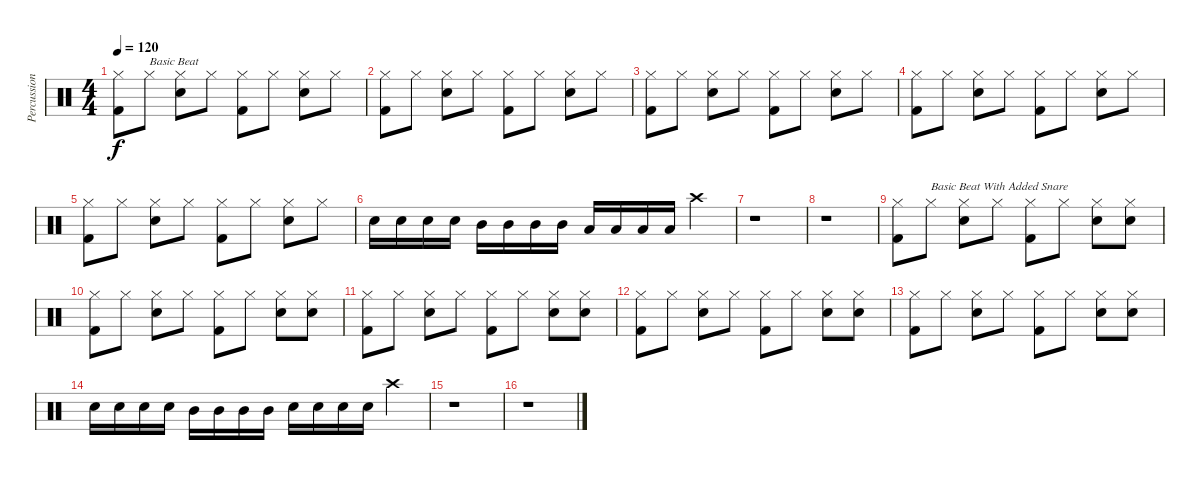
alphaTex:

\track ("Percussion" "Percussion") {instrument percussion}
\staff {score}
\articulation defaults
\ts (4 4)
\tempo 120
\clef neutral
\ks c
("Hi-Hat (closed)" "Kick (hit) 2").8{dy f} "Hi-Hat (closed)".8{txt "Basic Beat"} ("Snare (hit) 2" "Hi-Hat (closed)").8 "Hi-Hat (closed)".8 ("Hi-Hat (closed)" "Kick (hit) 2").8 "Hi-Hat (closed)".8 ("Snare (hit) 2" "Hi-Hat (closed)").8 "Hi-Hat (closed)".8 |
("Hi-Hat (closed)" "Kick (hit) 2").8 "Hi-Hat (closed)".8 ("Snare (hit) 2" "Hi-Hat (closed)").8 "Hi-Hat (closed)".8 ("Hi-Hat (closed)" "Kick (hit) 2").8 "Hi-Hat (closed)".8 ("Snare (hit) 2" "Hi-Hat (closed)").8 "Hi-Hat (closed)".8 |
("Hi-Hat (closed)" "Kick (hit) 2").8 "Hi-Hat (closed)".8 ("Snare (hit) 2" "Hi-Hat (closed)").8 "Hi-Hat (closed)".8 ("Hi-Hat (closed)" "Kick (hit) 2").8 "Hi-Hat (closed)".8 ("Snare (hit) 2" "Hi-Hat (closed)").8 "Hi-Hat (closed)".8 |
("Hi-Hat (closed)" "Kick (hit) 2").8 "Hi-Hat (closed)".8 ("Snare (hit) 2" "Hi-Hat (closed)").8 "Hi-Hat (closed)".8 ("Hi-Hat (closed)" "Kick (hit) 2").8 "Hi-Hat (closed)".8 ("Snare (hit) 2" "Hi-Hat (closed)").8 "Hi-Hat (closed)".8 |
("Hi-Hat (closed)" "Kick (hit) 2").8 "Hi-Hat (closed)".8 ("Snare (hit) 2" "Hi-Hat (closed)").8 "Hi-Hat (closed)".8 ("Hi-Hat (closed)" "Kick (hit) 2").8 "Hi-Hat (closed)".8 ("Snare (hit) 2" "Hi-Hat (closed)").8 "Hi-Hat (closed)".8 |
"Snare (hit) 2".16 "Snare (hit) 2".16 "Snare (hit) 2".16 "Snare (hit) 2".16 "Mid Tom (hit)".16 "Mid Tom (hit)".16 "Mid Tom (hit)".16 "Mid Tom (hit)".16 "Low Tom (hit)".16 "Low Tom (hit)".16 "Low Tom (hit)".16 "Low Tom (hit)".16 "Crash high (hit)".4 |
r.1 |
r.1 |
("Hi-Hat (closed)" "Kick (hit) 2").8 "Hi-Hat (closed)".8{txt "Basic Beat With Added Snare"} ("Snare (hit) 2" "Hi-Hat (closed)").8 "Hi-Hat (closed)".8 ("Hi-Hat (closed)" "Kick (hit) 2").8 "Hi-Hat (closed)".8 ("Snare (hit) 2" "Hi-Hat (closed)").8 ("Snare (hit) 2" "Hi-Hat (closed)").8 |
("Hi-Hat (closed)" "Kick (hit) 2").8 "Hi-Hat (closed)".8 ("Snare (hit) 2" "Hi-Hat (closed)").8 "Hi-Hat (closed)".8 ("Hi-Hat (closed)" "Kick (hit) 2").8 "Hi-Hat (closed)".8 ("Snare (hit) 2" "Hi-Hat (closed)").8 ("Snare (hit) 2" "Hi-Hat (closed)").8 |
("Hi-Hat (closed)" "Kick (hit) 2").8 "Hi-Hat (closed)".8 ("Snare (hit) 2" "Hi-Hat (closed)").8 "Hi-Hat (closed)".8 ("Hi-Hat (closed)" "Kick (hit) 2").8 "Hi-Hat (closed)".8 ("Snare (hit) 2" "Hi-Hat (closed)").8 ("Snare (hit) 2" "Hi-Hat (closed)").8 |
("Hi-Hat (closed)" "Kick (hit) 2").8 "Hi-Hat (closed)".8 ("Snare (hit) 2" "Hi-Hat (closed)").8 "Hi-Hat (closed)".8 ("Hi-Hat (closed)" "Kick (hit) 2").8 "Hi-Hat (closed)".8 ("Snare (hit) 2" "Hi-Hat (closed)").8 ("Snare (hit) 2" "Hi-Hat (closed)").8 |
("Hi-Hat (closed)" "Kick (hit) 2").8 "Hi-Hat (closed)".8 ("Snare (hit) 2" "Hi-Hat (closed)").8 "Hi-Hat (closed)".8 ("Hi-Hat (closed)" "Kick (hit) 2").8 "Hi-Hat (closed)".8 ("Snare (hit) 2" "Hi-Hat (closed)").8 ("Snare (hit) 2" "Hi-Hat (closed)").8 |
"Snare (hit) 2".16 "Snare (hit) 2".16 "Snare (hit) 2".16 "Snare (hit) 2".16 "Mid Tom (hit)".16 "Mid Tom (hit)".16 "Mid Tom (hit)".16 "Mid Tom (hit)".16 "Snare (hit) 2".16 "Snare (hit) 2".16 "Snare (hit) 2".16 "Snare (hit) 2".16 "Crash high (hit)".4 |
r.1 |
r.1
